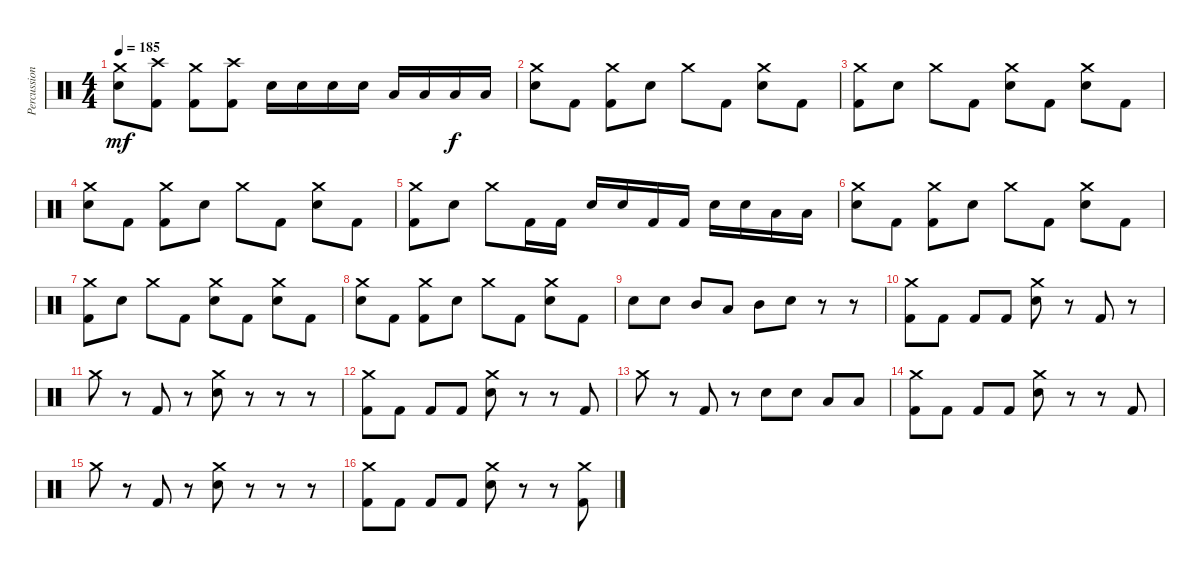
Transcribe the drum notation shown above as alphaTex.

\track ("Percussions" "Percussion") {instrument percussion}
\staff {score}
\articulation defaults
\ts (4 4)
\tempo 185
\clef neutral
\ks c
("Electric Snare (hit)" "Crash medium (hit)").8{dy mf} ("Kick (hit) 2" "Crash high (hit)").8 ("Kick (hit) 2" "Crash medium (hit)").8 ("Kick (hit) 2" "Crash high (hit)").8 "Electric Snare (hit)".16 "Electric Snare (hit)".16 "Electric Snare (hit)".16 "Electric Snare (hit)".16 "Low Tom (hit)".16 "Low Tom (hit)".16 "Low Tom (hit)".16{dy f} "Low Tom (hit)".16 |
("Electric Snare (hit)" "Crash medium (hit)").8 "Kick (hit) 2".8 ("Kick (hit) 2" "Crash medium (hit)").8 "Electric Snare (hit)".8 "Crash medium (hit)".8 "Kick (hit) 2".8 ("Electric Snare (hit)" "Crash medium (hit)").8 "Kick (hit) 2".8 |
("Kick (hit) 2" "Crash medium (hit)").8 "Electric Snare (hit)".8 "Crash medium (hit)".8 "Kick (hit) 2".8 ("Electric Snare (hit)" "Crash medium (hit)").8 "Kick (hit) 2".8 ("Electric Snare (hit)" "Crash medium (hit)").8 "Kick (hit) 2".8 |
("Electric Snare (hit)" "Crash medium (hit)").8 "Kick (hit) 2".8 ("Kick (hit) 2" "Crash medium (hit)").8 "Electric Snare (hit)".8 "Crash medium (hit)".8 "Kick (hit) 2".8 ("Electric Snare (hit)" "Crash medium (hit)").8 "Kick (hit) 2".8 |
("Kick (hit) 2" "Crash medium (hit)").8 "Electric Snare (hit)".8 "Crash medium (hit)".8 "Kick (hit) 2".16 "Kick (hit) 2".16 "Electric Snare (hit)".16 "Electric Snare (hit)".16 "Kick (hit) 2".16 "Kick (hit) 2".16 "Electric Snare (hit)".16 "Electric Snare (hit)".16 "Low Tom (hit)".16 "Low Tom (hit)".16 |
("Electric Snare (hit)" "Crash medium (hit)").8 "Kick (hit) 2".8 ("Kick (hit) 2" "Crash medium (hit)").8 "Electric Snare (hit)".8 "Crash medium (hit)".8 "Kick (hit) 2".8 ("Electric Snare (hit)" "Crash medium (hit)").8 "Kick (hit) 2".8 |
("Kick (hit) 2" "Crash medium (hit)").8 "Electric Snare (hit)".8 "Crash medium (hit)".8 "Kick (hit) 2".8 ("Electric Snare (hit)" "Crash medium (hit)").8 "Kick (hit) 2".8 ("Electric Snare (hit)" "Crash medium (hit)").8 "Kick (hit) 2".8 |
("Electric Snare (hit)" "Crash medium (hit)").8 "Kick (hit) 2".8 ("Kick (hit) 2" "Crash medium (hit)").8 "Electric Snare (hit)".8 "Crash medium (hit)".8 "Kick (hit) 2".8 ("Electric Snare (hit)" "Crash medium (hit)").8 "Kick (hit) 2".8 |
"Electric Snare (hit)".8 "Electric Snare (hit)".8 "Mid Tom (hit)".8 "Low Tom (hit)".8 "Mid Tom (hit)".8 "Electric Snare (hit)".8 r.8 r.8 |
("Kick (hit) 2" "Crash medium (hit)").8 "Kick (hit) 2".8 "Kick (hit) 2".8 "Kick (hit) 2".8 ("Electric Snare (hit)" "Crash medium (hit)").8 r.8 "Kick (hit) 2".8 r.8 |
"Crash medium (hit)".8 r.8 "Kick (hit) 2".8 r.8 ("Electric Snare (hit)" "Crash medium (hit)").8 r.8 r.8 r.8 |
("Kick (hit) 2" "Crash medium (hit)").8 "Kick (hit) 2".8 "Kick (hit) 2".8 "Kick (hit) 2".8 ("Electric Snare (hit)" "Crash medium (hit)").8 r.8 r.8 "Kick (hit) 2".8 |
"Crash medium (hit)".8 r.8 "Kick (hit) 2".8 r.8 "Electric Snare (hit)".8 "Electric Snare (hit)".8 "Low Tom (hit)".8 "Low Tom (hit)".8 |
("Kick (hit) 2" "Crash medium (hit)").8 "Kick (hit) 2".8 "Kick (hit) 2".8 "Kick (hit) 2".8 ("Electric Snare (hit)" "Crash medium (hit)").8 r.8 r.8 "Kick (hit) 2".8 |
"Crash medium (hit)".8 r.8 "Kick (hit) 2".8 r.8 ("Electric Snare (hit)" "Crash medium (hit)").8 r.8 r.8 r.8 |
("Kick (hit) 2" "Crash medium (hit)").8 "Kick (hit) 2".8 "Kick (hit) 2".8 "Kick (hit) 2".8 ("Electric Snare (hit)" "Crash medium (hit)").8 r.8 r.8 ("Kick (hit) 2" "Crash medium (hit)").8
